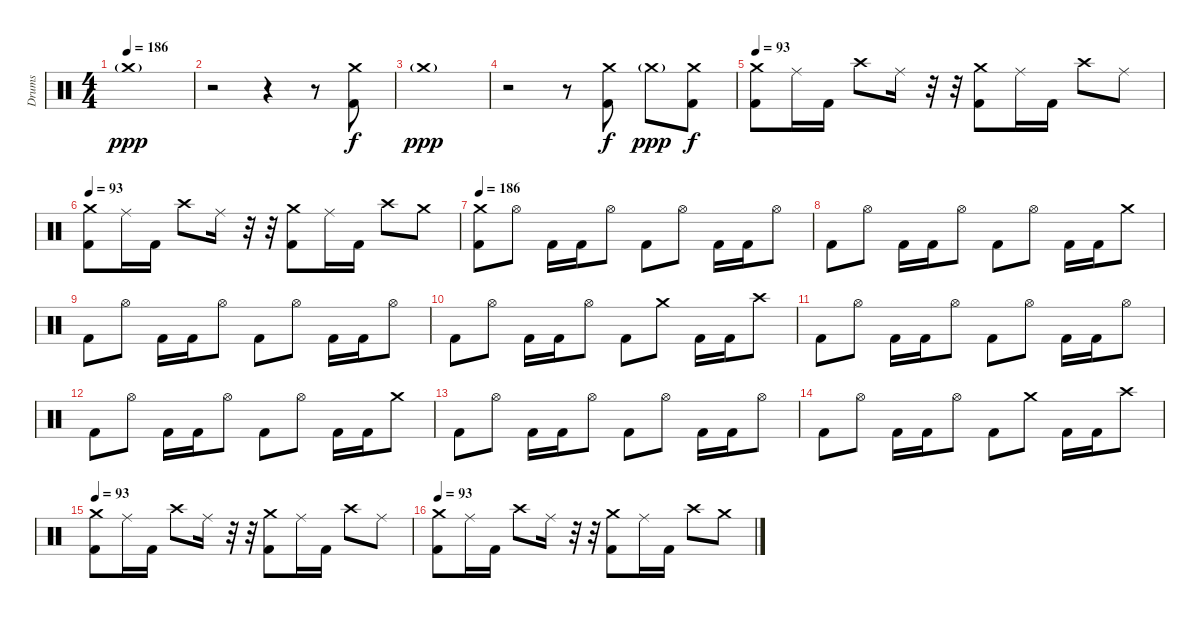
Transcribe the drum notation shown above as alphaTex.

\track ("Drums" "Drums") {instrument percussion}
\staff {score}
\articulation defaults
\ts (4 4)
\tempo 186
\clef neutral
\ks c "Crash medium (hit)"{g}.1{dy ppp}
|
r.2 r.4 r.8 ("Crash medium (hit)" "Kick (hit) 2").8{dy f} |
"Crash medium (hit)"{g}.1{dy ppp} |
r.2 r.8 ("Crash medium (hit)" "Kick (hit) 2").8{dy f} "Crash medium (hit)"{g}.8{dy ppp} ("Crash medium (hit)" "Kick (hit) 2").8{dy f} |
\tempo 93
("Crash medium (hit)" "Kick (hit) 2").8 "Ride (middle)".16 "Kick (hit) 2".16 "Crash high (hit)".8 "Ride (middle)".16 r.32 r.32 ("Crash medium (hit)" "Kick (hit) 2").8 "Ride (middle)".16 "Kick (hit) 2".16 "Crash high (hit)".8 "Ride (middle)".8 |
\tempo 93
("Crash medium (hit)" "Kick (hit) 2").8 "Ride (middle)".16 "Kick (hit) 2".16 "Crash high (hit)".8 "Ride (middle)".16 r.32 r.32 ("Crash medium (hit)" "Kick (hit) 2").8 "Ride (middle)".16 "Kick (hit) 2".16 "Crash high (hit)".8 "Crash medium (hit)".8 |
\tempo 186
("Crash medium (hit)" "Kick (hit) 2").8 "Hi-Hat (open)".8 "Kick (hit) 2".16 "Kick (hit) 2".16 "Hi-Hat (open)".8 "Kick (hit) 2".8 "Hi-Hat (open)".8 "Kick (hit) 2".16 "Kick (hit) 2".16 "Hi-Hat (open)".8 |
"Kick (hit) 2".8 "Hi-Hat (open)".8 "Kick (hit) 2".16 "Kick (hit) 2".16 "Hi-Hat (open)".8 "Kick (hit) 2".8 "Hi-Hat (open)".8 "Kick (hit) 2".16 "Kick (hit) 2".16 "Crash medium (hit)".8 |
"Kick (hit) 2".8 "Hi-Hat (open)".8 "Kick (hit) 2".16 "Kick (hit) 2".16 "Hi-Hat (open)".8 "Kick (hit) 2".8 "Hi-Hat (open)".8 "Kick (hit) 2".16 "Kick (hit) 2".16 "Hi-Hat (open)".8 |
"Kick (hit) 2".8 "Hi-Hat (open)".8 "Kick (hit) 2".16 "Kick (hit) 2".16 "Hi-Hat (open)".8 "Kick (hit) 2".8 "Crash medium (hit)".8 "Kick (hit) 2".16 "Kick (hit) 2".16 "Crash high (hit)".8 |
"Kick (hit) 2".8 "Hi-Hat (open)".8 "Kick (hit) 2".16 "Kick (hit) 2".16 "Hi-Hat (open)".8 "Kick (hit) 2".8 "Hi-Hat (open)".8 "Kick (hit) 2".16 "Kick (hit) 2".16 "Hi-Hat (open)".8 |
"Kick (hit) 2".8 "Hi-Hat (open)".8 "Kick (hit) 2".16 "Kick (hit) 2".16 "Hi-Hat (open)".8 "Kick (hit) 2".8 "Hi-Hat (open)".8 "Kick (hit) 2".16 "Kick (hit) 2".16 "Crash medium (hit)".8 |
"Kick (hit) 2".8 "Hi-Hat (open)".8 "Kick (hit) 2".16 "Kick (hit) 2".16 "Hi-Hat (open)".8 "Kick (hit) 2".8 "Hi-Hat (open)".8 "Kick (hit) 2".16 "Kick (hit) 2".16 "Hi-Hat (open)".8 |
"Kick (hit) 2".8 "Hi-Hat (open)".8 "Kick (hit) 2".16 "Kick (hit) 2".16 "Hi-Hat (open)".8 "Kick (hit) 2".8 "Crash medium (hit)".8 "Kick (hit) 2".16 "Kick (hit) 2".16 "Crash high (hit)".8 |
\tempo 93
("Crash medium (hit)" "Kick (hit) 2").8 "Ride (middle)".16 "Kick (hit) 2".16 "Crash high (hit)".8 "Ride (middle)".16 r.32 r.32 ("Crash medium (hit)" "Kick (hit) 2").8 "Ride (middle)".16 "Kick (hit) 2".16 "Crash high (hit)".8 "Ride (middle)".8 |
\tempo 93
("Crash medium (hit)" "Kick (hit) 2").8 "Ride (middle)".16 "Kick (hit) 2".16 "Crash high (hit)".8 "Ride (middle)".16 r.32 r.32 ("Crash medium (hit)" "Kick (hit) 2").8 "Ride (middle)".16 "Kick (hit) 2".16 "Crash high (hit)".8 "Crash medium (hit)".8
